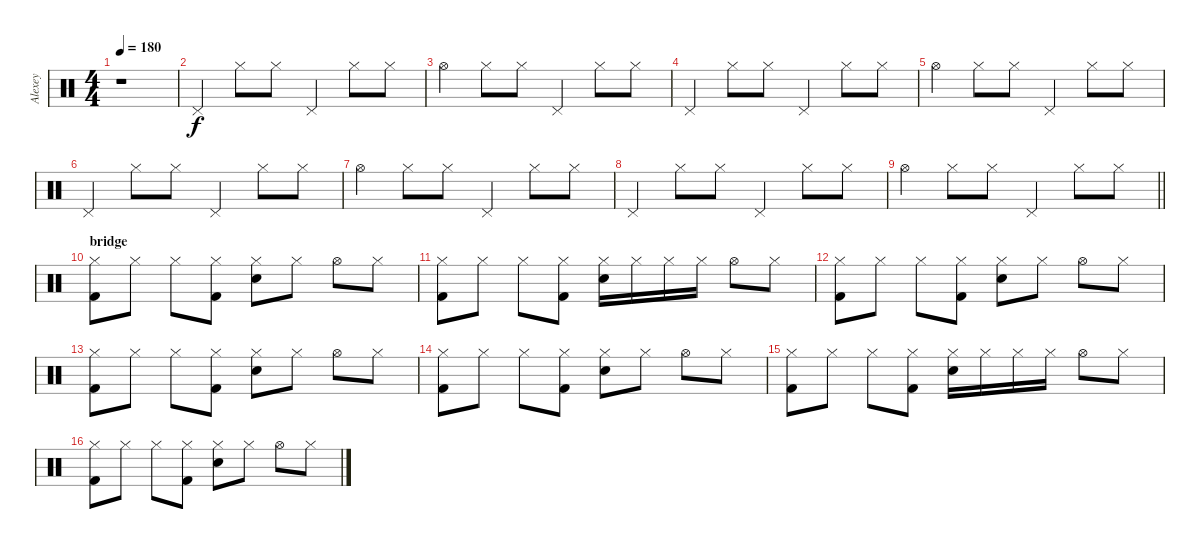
\track ("Alexey" "Alexey") {instrument percussion}
\staff {score}
\articulation defaults
\ts (4 4)
\tempo 180
\clef neutral
\ks c
r.1{dy f} |
"Pedal Hi-Hat (hit)".4 "Hi-Hat (closed)".8 "Hi-Hat (closed)".8 "Pedal Hi-Hat (hit)".4 "Hi-Hat (closed)".8 "Hi-Hat (closed)".8 |
"Hi-Hat (open)".4 "Hi-Hat (closed)".8 "Hi-Hat (closed)".8 "Pedal Hi-Hat (hit)".4 "Hi-Hat (closed)".8 "Hi-Hat (closed)".8 |
"Pedal Hi-Hat (hit)".4 "Hi-Hat (closed)".8 "Hi-Hat (closed)".8 "Pedal Hi-Hat (hit)".4 "Hi-Hat (closed)".8 "Hi-Hat (closed)".8 |
"Hi-Hat (open)".4 "Hi-Hat (closed)".8 "Hi-Hat (closed)".8 "Pedal Hi-Hat (hit)".4 "Hi-Hat (closed)".8 "Hi-Hat (closed)".8 |
"Pedal Hi-Hat (hit)".4 "Hi-Hat (closed)".8 "Hi-Hat (closed)".8 "Pedal Hi-Hat (hit)".4 "Hi-Hat (closed)".8 "Hi-Hat (closed)".8 |
"Hi-Hat (open)".4 "Hi-Hat (closed)".8 "Hi-Hat (closed)".8 "Pedal Hi-Hat (hit)".4 "Hi-Hat (closed)".8 "Hi-Hat (closed)".8 |
"Pedal Hi-Hat (hit)".4 "Hi-Hat (closed)".8 "Hi-Hat (closed)".8 "Pedal Hi-Hat (hit)".4 "Hi-Hat (closed)".8 "Hi-Hat (closed)".8 |
\barLineRight lightlight "Hi-Hat (open)".4 "Hi-Hat (closed)".8 "Hi-Hat (closed)".8 "Pedal Hi-Hat (hit)".4 "Hi-Hat (closed)".8 "Hi-Hat (closed)".8
|
\section ("" "bridge")
("Hi-Hat (closed)" "Kick (hit) 2").8 "Hi-Hat (closed)".8 "Hi-Hat (closed)".8 ("Hi-Hat (closed)" "Kick (hit) 2").8 ("Hi-Hat (closed)" "Snare (hit) 2").8 "Hi-Hat (closed)".8 "Hi-Hat (open)".8 "Hi-Hat (closed)".8 |
("Hi-Hat (closed)" "Kick (hit) 2").8 "Hi-Hat (closed)".8 "Hi-Hat (closed)".8 ("Hi-Hat (closed)" "Kick (hit) 2").8 ("Hi-Hat (closed)" "Snare (hit) 2").16 "Hi-Hat (closed)".16 "Hi-Hat (closed)".16 "Hi-Hat (closed)".16 "Hi-Hat (open)".8 "Hi-Hat (closed)".8 |
("Hi-Hat (closed)" "Kick (hit) 2").8 "Hi-Hat (closed)".8 "Hi-Hat (closed)".8 ("Hi-Hat (closed)" "Kick (hit) 2").8 ("Hi-Hat (closed)" "Snare (hit) 2").8 "Hi-Hat (closed)".8 "Hi-Hat (open)".8 "Hi-Hat (closed)".8 |
("Hi-Hat (closed)" "Kick (hit) 2").8 "Hi-Hat (closed)".8 "Hi-Hat (closed)".8 ("Hi-Hat (closed)" "Kick (hit) 2").8 ("Hi-Hat (closed)" "Snare (hit) 2").8 "Hi-Hat (closed)".8 "Hi-Hat (open)".8 "Hi-Hat (closed)".8 |
("Hi-Hat (closed)" "Kick (hit) 2").8 "Hi-Hat (closed)".8 "Hi-Hat (closed)".8 ("Hi-Hat (closed)" "Kick (hit) 2").8 ("Hi-Hat (closed)" "Snare (hit) 2").8 "Hi-Hat (closed)".8 "Hi-Hat (open)".8 "Hi-Hat (closed)".8 |
("Hi-Hat (closed)" "Kick (hit) 2").8 "Hi-Hat (closed)".8 "Hi-Hat (closed)".8 ("Hi-Hat (closed)" "Kick (hit) 2").8 ("Hi-Hat (closed)" "Snare (hit) 2").16 "Hi-Hat (closed)".16 "Hi-Hat (closed)".16 "Hi-Hat (closed)".16 "Hi-Hat (open)".8 "Hi-Hat (closed)".8 |
("Hi-Hat (closed)" "Kick (hit) 2").8 "Hi-Hat (closed)".8 "Hi-Hat (closed)".8 ("Hi-Hat (closed)" "Kick (hit) 2").8 ("Hi-Hat (closed)" "Snare (hit) 2").8 "Hi-Hat (closed)".8 "Hi-Hat (open)".8 "Hi-Hat (closed)".8
